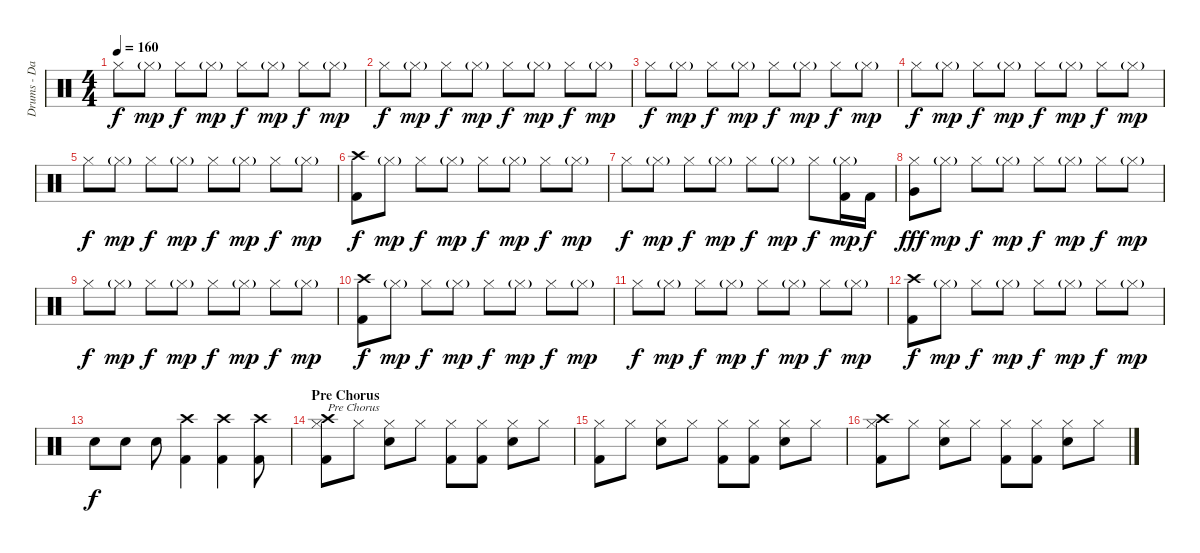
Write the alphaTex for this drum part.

\track ("Drums - Daniel Zimmermann" "Drums - Da") {instrument percussion}
\staff {score}
\articulation defaults
\ts (4 4)
\tempo 160
\clef neutral
\ks c "Hi-Hat (closed)".8{dy f} "Hi-Hat (closed)"{g}.8{dy mp} "Hi-Hat (closed)".8{dy f} "Hi-Hat (closed)"{g}.8{dy mp} "Hi-Hat (closed)".8{dy f} "Hi-Hat (closed)"{g}.8{dy mp} "Hi-Hat (closed)".8{dy f} "Hi-Hat (closed)"{g}.8{dy mp}
|
"Hi-Hat (closed)".8{dy f} "Hi-Hat (closed)"{g}.8{dy mp} "Hi-Hat (closed)".8{dy f} "Hi-Hat (closed)"{g}.8{dy mp} "Hi-Hat (closed)".8{dy f} "Hi-Hat (closed)"{g}.8{dy mp} "Hi-Hat (closed)".8{dy f} "Hi-Hat (closed)"{g}.8{dy mp} |
"Hi-Hat (closed)".8{dy f} "Hi-Hat (closed)"{g}.8{dy mp} "Hi-Hat (closed)".8{dy f} "Hi-Hat (closed)"{g}.8{dy mp} "Hi-Hat (closed)".8{dy f} "Hi-Hat (closed)"{g}.8{dy mp} "Hi-Hat (closed)".8{dy f} "Hi-Hat (closed)"{g}.8{dy mp} |
"Hi-Hat (closed)".8{dy f} "Hi-Hat (closed)"{g}.8{dy mp} "Hi-Hat (closed)".8{dy f} "Hi-Hat (closed)"{g}.8{dy mp} "Hi-Hat (closed)".8{dy f} "Hi-Hat (closed)"{g}.8{dy mp} "Hi-Hat (closed)".8{dy f} "Hi-Hat (closed)"{g}.8{dy mp} |
"Hi-Hat (closed)".8{dy f} "Hi-Hat (closed)"{g}.8{dy mp} "Hi-Hat (closed)".8{dy f} "Hi-Hat (closed)"{g}.8{dy mp} "Hi-Hat (closed)".8{dy f} "Hi-Hat (closed)"{g}.8{dy mp} "Hi-Hat (closed)".8{dy f} "Hi-Hat (closed)"{g}.8{dy mp} |
("Kick (hit) 2" "Crash high (hit)").8{dy f} "Hi-Hat (closed)"{g}.8{dy mp} "Hi-Hat (closed)".8{dy f} "Hi-Hat (closed)"{g}.8{dy mp} "Hi-Hat (closed)".8{dy f} "Hi-Hat (closed)"{g}.8{dy mp} "Hi-Hat (closed)".8{dy f} "Hi-Hat (closed)"{g}.8{dy mp} |
"Hi-Hat (closed)".8{dy f} "Hi-Hat (closed)"{g}.8{dy mp} "Hi-Hat (closed)".8{dy f} "Hi-Hat (closed)"{g}.8{dy mp} "Hi-Hat (closed)".8{dy f} "Hi-Hat (closed)"{g}.8{dy mp} "Hi-Hat (closed)".8{dy f} ("Hi-Hat (closed)"{g} "Kick (hit) 2").16{dy mp} "Kick (hit) 2".16{dy f} |
("Hi-Hat (closed)" "Very Low Tom (hit)").8{dy fff} "Hi-Hat (closed)"{g}.8{dy mp} "Hi-Hat (closed)".8{dy f} "Hi-Hat (closed)"{g}.8{dy mp} "Hi-Hat (closed)".8{dy f} "Hi-Hat (closed)"{g}.8{dy mp} "Hi-Hat (closed)".8{dy f} "Hi-Hat (closed)"{g}.8{dy mp} |
"Hi-Hat (closed)".8{dy f} "Hi-Hat (closed)"{g}.8{dy mp} "Hi-Hat (closed)".8{dy f} "Hi-Hat (closed)"{g}.8{dy mp} "Hi-Hat (closed)".8{dy f} "Hi-Hat (closed)"{g}.8{dy mp} "Hi-Hat (closed)".8{dy f} "Hi-Hat (closed)"{g}.8{dy mp} |
("Kick (hit) 2" "Crash high (hit)").8{dy f} "Hi-Hat (closed)"{g}.8{dy mp} "Hi-Hat (closed)".8{dy f} "Hi-Hat (closed)"{g}.8{dy mp} "Hi-Hat (closed)".8{dy f} "Hi-Hat (closed)"{g}.8{dy mp} "Hi-Hat (closed)".8{dy f} "Hi-Hat (closed)"{g}.8{dy mp} |
"Hi-Hat (closed)".8{dy f} "Hi-Hat (closed)"{g}.8{dy mp} "Hi-Hat (closed)".8{dy f} "Hi-Hat (closed)"{g}.8{dy mp} "Hi-Hat (closed)".8{dy f} "Hi-Hat (closed)"{g}.8{dy mp} "Hi-Hat (closed)".8{dy f} "Hi-Hat (closed)"{g}.8{dy mp} |
("Kick (hit) 2" "Crash high (hit)").8{dy f} "Hi-Hat (closed)"{g}.8{dy mp} "Hi-Hat (closed)".8{dy f} "Hi-Hat (closed)"{g}.8{dy mp} "Hi-Hat (closed)".8{dy f} "Hi-Hat (closed)"{g}.8{dy mp} "Hi-Hat (closed)".8{dy f} "Hi-Hat (closed)"{g}.8{dy mp} |
"Snare (hit) 2".8{dy f} "Snare (hit) 2".8 "Snare (hit) 2".8 ("Kick (hit) 2" "Crash high (hit)").4 ("Kick (hit) 2" "Crash high (hit)").4 ("Kick (hit) 2" "Crash high (hit)").8 |
\section ("" "Pre Chorus")
("Hi-Hat (closed)" "Kick (hit) 2" "Crash high (hit)").8{txt "Pre Chorus"} "Hi-Hat (closed)".8 ("Hi-Hat (closed)" "Snare (hit) 2").8 "Hi-Hat (closed)".8 ("Hi-Hat (closed)" "Kick (hit) 2").8 ("Hi-Hat (closed)" "Kick (hit) 2").8 ("Hi-Hat (closed)" "Snare (hit) 2").8 "Hi-Hat (closed)".8 |
("Hi-Hat (closed)" "Kick (hit) 2").8 "Hi-Hat (closed)".8 ("Hi-Hat (closed)" "Snare (hit) 2").8 "Hi-Hat (closed)".8 ("Hi-Hat (closed)" "Kick (hit) 2").8 ("Hi-Hat (closed)" "Kick (hit) 2").8 ("Hi-Hat (closed)" "Snare (hit) 2").8 "Hi-Hat (closed)".8 |
("Hi-Hat (closed)" "Kick (hit) 2" "Crash high (hit)").8 "Hi-Hat (closed)".8 ("Hi-Hat (closed)" "Snare (hit) 2").8 "Hi-Hat (closed)".8 ("Hi-Hat (closed)" "Kick (hit) 2").8 ("Hi-Hat (closed)" "Kick (hit) 2").8 ("Hi-Hat (closed)" "Snare (hit) 2").8 "Hi-Hat (closed)".8
